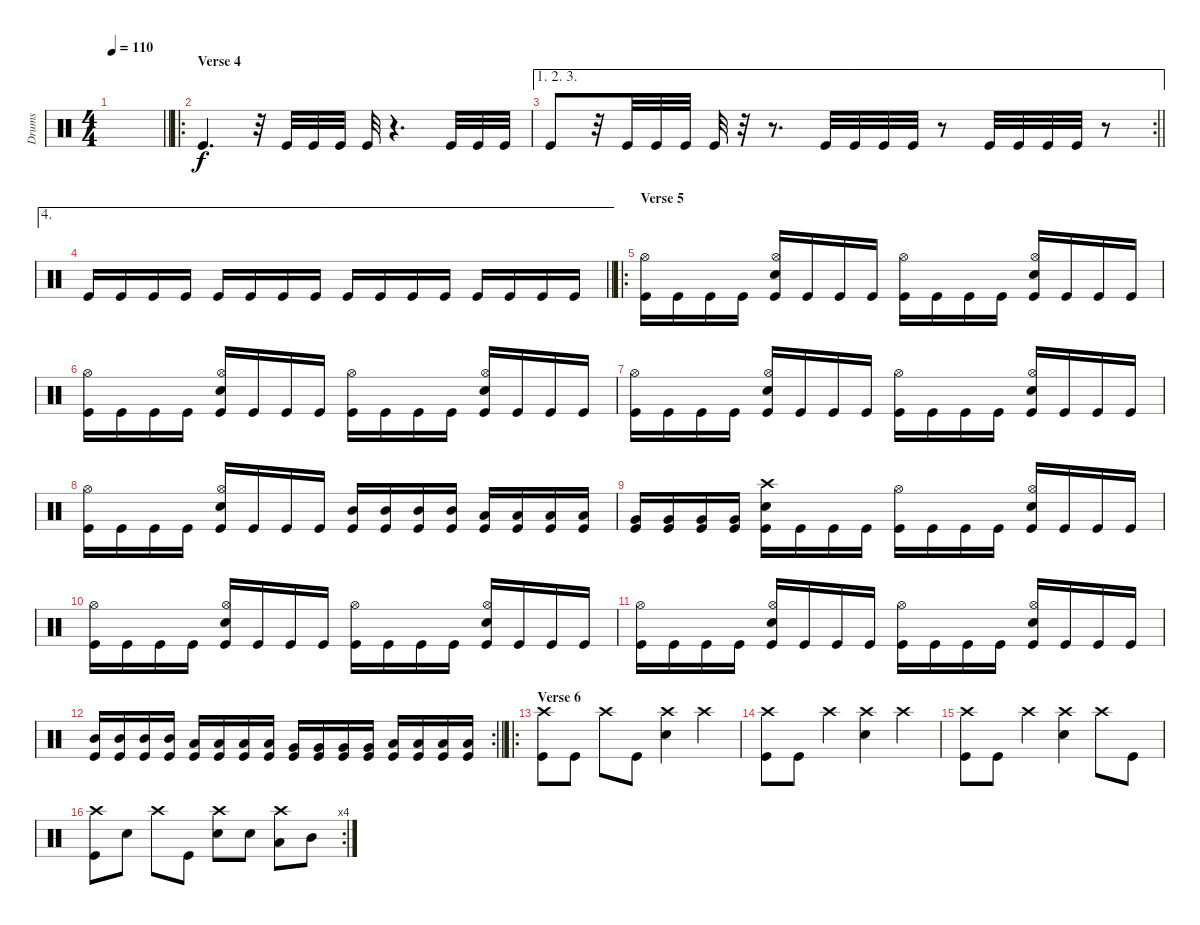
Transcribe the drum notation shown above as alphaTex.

\track ("Drums" "Drums") {instrument percussion}
\staff {score}
\articulation defaults
\ts (4 4)
\tempo 110
\clef neutral
\barLineRight lightlight
\ks c
|
\ro
\section ("" "Verse 4")
"Kick (hit)".4{d} r.32 "Kick (hit)".32 "Kick (hit)".32 "Kick (hit)".32 "Kick (hit)".32 r.4{d} "Kick (hit)".32 "Kick (hit)".32 "Kick (hit)".32 |
\ae (1 2 3)
\rc 2
\barLineRight lightlight "Kick (hit)".8
r.32 "Kick (hit)".32 "Kick (hit)".32 "Kick (hit)".32 "Kick (hit)".32 r.32 r.8{d} "Kick (hit)".32 "Kick (hit)".32 "Kick (hit)".32 "Kick (hit)".32 r.8 "Kick (hit)".32 "Kick (hit)".32 "Kick (hit)".32 "Kick (hit)".32 r.8 |
\ae 4
\barLineRight lightlight "Kick (hit)".16 "Kick (hit)".16 "Kick (hit)".16 "Kick (hit)".16 "Kick (hit)".16 "Kick (hit)".16 "Kick (hit)".16 "Kick (hit)".16 "Kick (hit)".16 "Kick (hit)".16 "Kick (hit)".16 "Kick (hit)".16 "Kick (hit)".16 "Kick (hit)".16 "Kick (hit)".16 "Kick (hit)".16
|
\ro
\section ("" "Verse 5")
("Hi-Hat (open)" "Kick (hit)").16 "Kick (hit)".16 "Kick (hit)".16 "Kick (hit)".16 ("Hi-Hat (open)" "Snare (hit) 2" "Kick (hit)").16 "Kick (hit)".16 "Kick (hit)".16 "Kick (hit)".16 ("Hi-Hat (open)" "Kick (hit)").16 "Kick (hit)".16 "Kick (hit)".16 "Kick (hit)".16 ("Hi-Hat (open)" "Snare (hit) 2" "Kick (hit)").16 "Kick (hit)".16 "Kick (hit)".16 "Kick (hit)".16 |
("Hi-Hat (open)" "Kick (hit)").16 "Kick (hit)".16 "Kick (hit)".16 "Kick (hit)".16 ("Hi-Hat (open)" "Snare (hit) 2" "Kick (hit)").16 "Kick (hit)".16 "Kick (hit)".16 "Kick (hit)".16 ("Hi-Hat (open)" "Kick (hit)").16 "Kick (hit)".16 "Kick (hit)".16 "Kick (hit)".16 ("Hi-Hat (open)" "Snare (hit) 2" "Kick (hit)").16 "Kick (hit)".16 "Kick (hit)".16 "Kick (hit)".16 |
("Hi-Hat (open)" "Kick (hit)").16 "Kick (hit)".16 "Kick (hit)".16 "Kick (hit)".16 ("Hi-Hat (open)" "Snare (hit) 2" "Kick (hit)").16 "Kick (hit)".16 "Kick (hit)".16 "Kick (hit)".16 ("Hi-Hat (open)" "Kick (hit)").16 "Kick (hit)".16 "Kick (hit)".16 "Kick (hit)".16 ("Hi-Hat (open)" "Snare (hit) 2" "Kick (hit)").16 "Kick (hit)".16 "Kick (hit)".16 "Kick (hit)".16 |
("Hi-Hat (open)" "Kick (hit)").16 "Kick (hit)".16 "Kick (hit)".16 "Kick (hit)".16 ("Hi-Hat (open)" "Snare (hit) 2" "Kick (hit)").16 "Kick (hit)".16 "Kick (hit)".16 "Kick (hit)".16 ("Mid Tom (hit)" "Kick (hit)").16 ("Mid Tom (hit)" "Kick (hit)").16 ("Mid Tom (hit)" "Kick (hit)").16 ("Mid Tom (hit)" "Kick (hit)").16 ("Low Tom (hit)" "Kick (hit)").16 ("Low Tom (hit)" "Kick (hit)").16 ("Low Tom (hit)" "Kick (hit)").16 ("Low Tom (hit)" "Kick (hit)").16 |
("Very Low Tom (hit)" "Kick (hit)").16 ("Very Low Tom (hit)" "Kick (hit)").16 ("Very Low Tom (hit)" "Kick (hit)").16 ("Very Low Tom (hit)" "Kick (hit)").16 ("Crash high (hit)" "Snare (hit) 2" "Kick (hit)").16 "Kick (hit)".16 "Kick (hit)".16 "Kick (hit)".16 ("Hi-Hat (open)" "Kick (hit)").16 "Kick (hit)".16 "Kick (hit)".16 "Kick (hit)".16 ("Hi-Hat (open)" "Snare (hit) 2" "Kick (hit)").16 "Kick (hit)".16 "Kick (hit)".16 "Kick (hit)".16 |
("Hi-Hat (open)" "Kick (hit)").16 "Kick (hit)".16 "Kick (hit)".16 "Kick (hit)".16 ("Hi-Hat (open)" "Snare (hit) 2" "Kick (hit)").16 "Kick (hit)".16 "Kick (hit)".16 "Kick (hit)".16 ("Hi-Hat (open)" "Kick (hit)").16 "Kick (hit)".16 "Kick (hit)".16 "Kick (hit)".16 ("Hi-Hat (open)" "Snare (hit) 2" "Kick (hit)").16 "Kick (hit)".16 "Kick (hit)".16 "Kick (hit)".16 |
("Hi-Hat (open)" "Kick (hit)").16 "Kick (hit)".16 "Kick (hit)".16 "Kick (hit)".16 ("Hi-Hat (open)" "Snare (hit) 2" "Kick (hit)").16 "Kick (hit)".16 "Kick (hit)".16 "Kick (hit)".16 ("Hi-Hat (open)" "Kick (hit)").16 "Kick (hit)".16 "Kick (hit)".16 "Kick (hit)".16 ("Hi-Hat (open)" "Snare (hit) 2" "Kick (hit)").16 "Kick (hit)".16 "Kick (hit)".16 "Kick (hit)".16 |
\rc 2
\barLineRight lightlight
("Mid Tom (hit)" "Kick (hit)").16 ("Mid Tom (hit)" "Kick (hit)").16 ("Mid Tom (hit)" "Kick (hit)").16 ("Mid Tom (hit)" "Kick (hit)").16 ("Low Tom (hit)" "Kick (hit)").16 ("Low Tom (hit)" "Kick (hit)").16 ("Low Tom (hit)" "Kick (hit)").16 ("Low Tom (hit)" "Kick (hit)").16 ("Very Low Tom (hit)" "Kick (hit)").16 ("Very Low Tom (hit)" "Kick (hit)").16 ("Very Low Tom (hit)" "Kick (hit)").16 ("Very Low Tom (hit)" "Kick (hit)").16 ("Low Floor Tom (hit)" "Kick (hit)").16 ("Low Floor Tom (hit)" "Kick (hit)").16 ("Low Floor Tom (hit)" "Kick (hit)").16 ("Low Floor Tom (hit)" "Kick (hit)").16 |
\ro
\section ("" "Verse 6")
("Crash high (hit)" "Kick (hit)").8 "Kick (hit)".8 "Crash high (hit)".8 "Kick (hit)".8 ("Crash high (hit)" "Snare (hit) 2").4 "Crash high (hit)".4 |
("Crash high (hit)" "Kick (hit)").8 "Kick (hit)".8 "Crash high (hit)".4 ("Crash high (hit)" "Snare (hit) 2").4 "Crash high (hit)".4 |
("Crash high (hit)" "Kick (hit)").8 "Kick (hit)".8 "Crash high (hit)".4 ("Crash high (hit)" "Snare (hit) 2").4 "Crash high (hit)".8 "Kick (hit)".8 |
\rc 4
("Crash high (hit)" "Kick (hit)").8 "Snare (hit) 2".8 "Crash high (hit)".8 "Kick (hit)".8 ("Crash high (hit)" "Snare (hit) 2").8 "Snare (hit) 2".8 ("Crash high (hit)" "Low Tom (hit)").8 "Mid Tom (hit)".8
